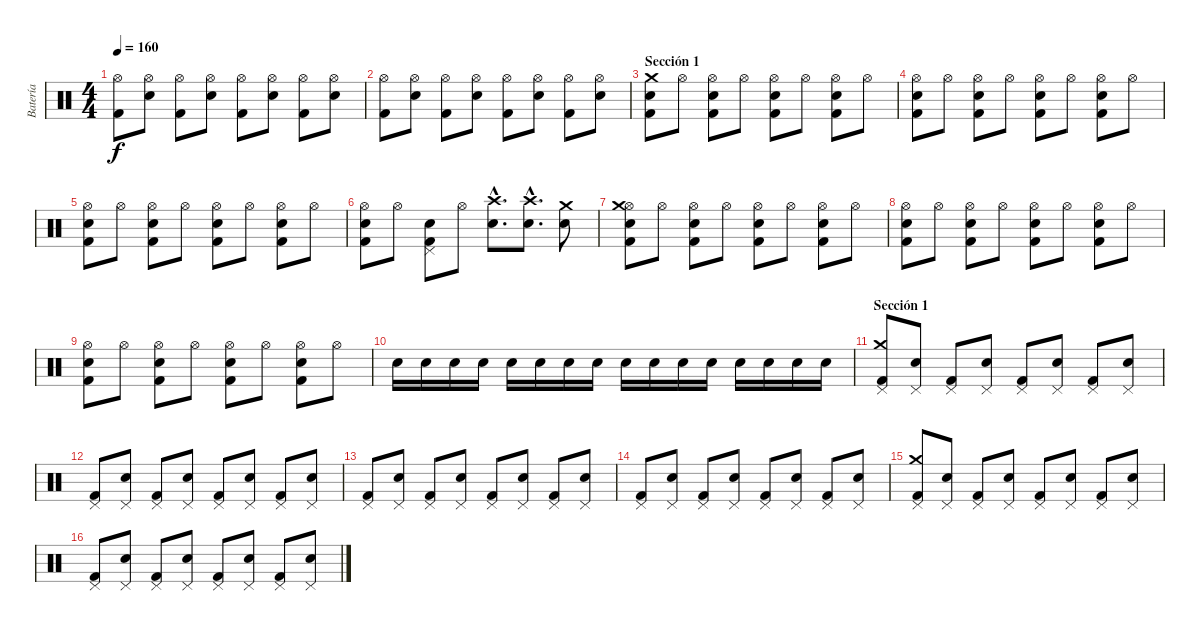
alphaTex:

\track ("Batería" "Batería") {instrument percussion}
\staff {score}
\articulation defaults
\ts (4 4)
\tempo 160
\clef neutral
\ks c
("Hi-Hat (open)" "Kick (hit) 2").8{dy f} ("Hi-Hat (open)" "Electric Snare (hit)").8 ("Hi-Hat (open)" "Kick (hit) 2").8 ("Hi-Hat (open)" "Electric Snare (hit)").8 ("Hi-Hat (open)" "Kick (hit) 2").8 ("Hi-Hat (open)" "Electric Snare (hit)").8 ("Hi-Hat (open)" "Kick (hit) 2").8 ("Hi-Hat (open)" "Electric Snare (hit)").8 |
("Hi-Hat (open)" "Kick (hit) 2").8 ("Hi-Hat (open)" "Electric Snare (hit)").8 ("Hi-Hat (open)" "Kick (hit) 2").8 ("Hi-Hat (open)" "Electric Snare (hit)").8 ("Hi-Hat (open)" "Kick (hit) 2").8 ("Hi-Hat (open)" "Electric Snare (hit)").8 ("Hi-Hat (open)" "Kick (hit) 2").8 ("Hi-Hat (open)" "Electric Snare (hit)").8 |
\section ("" "Sección 1")
("Crash medium (hit)" "Electric Snare (hit)" "Kick (hit) 2").8 "Hi-Hat (open)".8 ("Hi-Hat (open)" "Electric Snare (hit)" "Kick (hit) 2").8 "Hi-Hat (open)".8 ("Hi-Hat (open)" "Electric Snare (hit)" "Kick (hit) 2").8 "Hi-Hat (open)".8 ("Hi-Hat (open)" "Electric Snare (hit)" "Kick (hit) 2").8 "Hi-Hat (open)".8 |
("Hi-Hat (open)" "Electric Snare (hit)" "Kick (hit) 2").8 "Hi-Hat (open)".8 ("Hi-Hat (open)" "Electric Snare (hit)" "Kick (hit) 2").8 "Hi-Hat (open)".8 ("Hi-Hat (open)" "Electric Snare (hit)" "Kick (hit) 2").8 "Hi-Hat (open)".8 ("Hi-Hat (open)" "Electric Snare (hit)" "Kick (hit) 2").8 "Hi-Hat (open)".8 |
("Hi-Hat (open)" "Electric Snare (hit)" "Kick (hit) 2").8 "Hi-Hat (open)".8 ("Hi-Hat (open)" "Electric Snare (hit)" "Kick (hit) 2").8 "Hi-Hat (open)".8 ("Hi-Hat (open)" "Electric Snare (hit)" "Kick (hit) 2").8 "Hi-Hat (open)".8 ("Hi-Hat (open)" "Electric Snare (hit)" "Kick (hit) 2").8 "Hi-Hat (open)".8 |
("Hi-Hat (open)" "Electric Snare (hit)" "Kick (hit) 2").8 "Hi-Hat (open)".8 ("Pedal Hi-Hat (hit)" "Electric Snare (hit)" "Kick (hit) 2").8 "Hi-Hat (open)".8 ("Crash high (hit)"{hac} "Electric Snare (hit)"{hac}).8{d} ("Crash high (hit)"{hac} "Electric Snare (hit)"{hac}).8{d} ("Crash medium (hit)" "Electric Snare (hit)").8 |
("Hi-Hat (open)" "Crash medium (hit)" "Electric Snare (hit)" "Kick (hit) 2").8 "Hi-Hat (open)".8 ("Hi-Hat (open)" "Electric Snare (hit)" "Kick (hit) 2").8 "Hi-Hat (open)".8 ("Hi-Hat (open)" "Electric Snare (hit)" "Kick (hit) 2").8 "Hi-Hat (open)".8 ("Hi-Hat (open)" "Electric Snare (hit)" "Kick (hit) 2").8 "Hi-Hat (open)".8 |
("Hi-Hat (open)" "Electric Snare (hit)" "Kick (hit) 2").8 "Hi-Hat (open)".8 ("Hi-Hat (open)" "Electric Snare (hit)" "Kick (hit) 2").8 "Hi-Hat (open)".8 ("Hi-Hat (open)" "Electric Snare (hit)" "Kick (hit) 2").8 "Hi-Hat (open)".8 ("Hi-Hat (open)" "Electric Snare (hit)" "Kick (hit) 2").8 "Hi-Hat (open)".8 |
("Hi-Hat (open)" "Electric Snare (hit)" "Kick (hit) 2").8 "Hi-Hat (open)".8 ("Hi-Hat (open)" "Electric Snare (hit)" "Kick (hit) 2").8 "Hi-Hat (open)".8 ("Hi-Hat (open)" "Electric Snare (hit)" "Kick (hit) 2").8 "Hi-Hat (open)".8 ("Hi-Hat (open)" "Electric Snare (hit)" "Kick (hit) 2").8 "Hi-Hat (open)".8 |
"Electric Snare (hit)".16 "Electric Snare (hit)".16 "Electric Snare (hit)".16 "Electric Snare (hit)".16 "Electric Snare (hit)".16 "Electric Snare (hit)".16 "Electric Snare (hit)".16 "Electric Snare (hit)".16 "Electric Snare (hit)".16 "Electric Snare (hit)".16 "Electric Snare (hit)".16 "Electric Snare (hit)".16 "Electric Snare (hit)".16 "Electric Snare (hit)".16 "Electric Snare (hit)".16 "Electric Snare (hit)".16 |
\section ("" "Sección 1")
("Pedal Hi-Hat (hit)" "Crash medium (hit)" "Kick (hit) 2").8 ("Pedal Hi-Hat (hit)" "Electric Snare (hit)").8 ("Pedal Hi-Hat (hit)" "Kick (hit) 2").8 ("Pedal Hi-Hat (hit)" "Electric Snare (hit)").8 ("Pedal Hi-Hat (hit)" "Kick (hit) 2").8 ("Pedal Hi-Hat (hit)" "Electric Snare (hit)").8 ("Pedal Hi-Hat (hit)" "Kick (hit) 2").8 ("Pedal Hi-Hat (hit)" "Electric Snare (hit)").8 |
("Pedal Hi-Hat (hit)" "Kick (hit) 2").8 ("Pedal Hi-Hat (hit)" "Electric Snare (hit)").8 ("Pedal Hi-Hat (hit)" "Kick (hit) 2").8 ("Pedal Hi-Hat (hit)" "Electric Snare (hit)").8 ("Pedal Hi-Hat (hit)" "Kick (hit) 2").8 ("Pedal Hi-Hat (hit)" "Electric Snare (hit)").8 ("Pedal Hi-Hat (hit)" "Kick (hit) 2").8 ("Pedal Hi-Hat (hit)" "Electric Snare (hit)").8 |
("Pedal Hi-Hat (hit)" "Kick (hit) 2").8 ("Pedal Hi-Hat (hit)" "Electric Snare (hit)").8 ("Pedal Hi-Hat (hit)" "Kick (hit) 2").8 ("Pedal Hi-Hat (hit)" "Electric Snare (hit)").8 ("Pedal Hi-Hat (hit)" "Kick (hit) 2").8 ("Pedal Hi-Hat (hit)" "Electric Snare (hit)").8 ("Pedal Hi-Hat (hit)" "Kick (hit) 2").8 ("Pedal Hi-Hat (hit)" "Electric Snare (hit)").8 |
("Pedal Hi-Hat (hit)" "Kick (hit) 2").8 ("Pedal Hi-Hat (hit)" "Electric Snare (hit)").8 ("Pedal Hi-Hat (hit)" "Kick (hit) 2").8 ("Pedal Hi-Hat (hit)" "Electric Snare (hit)").8 ("Pedal Hi-Hat (hit)" "Kick (hit) 2").8 ("Pedal Hi-Hat (hit)" "Electric Snare (hit)").8 ("Pedal Hi-Hat (hit)" "Kick (hit) 2").8 ("Pedal Hi-Hat (hit)" "Electric Snare (hit)").8 |
("Pedal Hi-Hat (hit)" "Crash medium (hit)" "Kick (hit) 2").8 ("Pedal Hi-Hat (hit)" "Electric Snare (hit)").8 ("Pedal Hi-Hat (hit)" "Kick (hit) 2").8 ("Pedal Hi-Hat (hit)" "Electric Snare (hit)").8 ("Pedal Hi-Hat (hit)" "Kick (hit) 2").8 ("Pedal Hi-Hat (hit)" "Electric Snare (hit)").8 ("Pedal Hi-Hat (hit)" "Kick (hit) 2").8 ("Pedal Hi-Hat (hit)" "Electric Snare (hit)").8 |
("Pedal Hi-Hat (hit)" "Kick (hit) 2").8 ("Pedal Hi-Hat (hit)" "Electric Snare (hit)").8 ("Pedal Hi-Hat (hit)" "Kick (hit) 2").8 ("Pedal Hi-Hat (hit)" "Electric Snare (hit)").8 ("Pedal Hi-Hat (hit)" "Kick (hit) 2").8 ("Pedal Hi-Hat (hit)" "Electric Snare (hit)").8 ("Pedal Hi-Hat (hit)" "Kick (hit) 2").8 ("Pedal Hi-Hat (hit)" "Electric Snare (hit)").8
